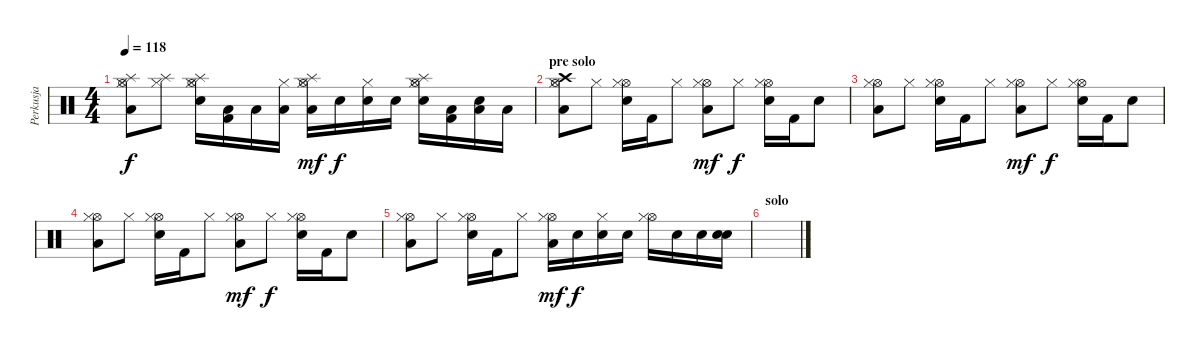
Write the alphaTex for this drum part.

\track ("Perkusja" "Perkusja") {instrument percussion}
\staff {score}
\articulation defaults
\ts (4 4)
\tempo 118
\clef neutral
\ks c
("Splash (hit)" "Low Tom (hit)" "Hi-Hat (open)" "Hi-Hat (closed)").8{dy f} ("Splash (hit)" "Hi-Hat (closed)").8 ("Splash (hit)" "Electric Snare (hit)" "Hi-Hat (open)" "Hi-Hat (closed)").16 ("Low Tom (hit)" "Kick (hit) 2").16 "Low Tom (hit)".16 ("Low Tom (hit)" "Hi-Hat (closed)").16 ("Splash (hit)" "Low Tom (hit)" "Hi-Hat (open)" "Hi-Hat (closed)").16{dy mf} "Electric Snare (hit)".16{dy f} ("Electric Snare (hit)" "Hi-Hat (closed)").16 "Electric Snare (hit)".16 ("Splash (hit)" "Electric Snare (hit)" "Hi-Hat (open)" "Hi-Hat (closed)").16 ("Low Tom (hit)" "Kick (hit) 2").16 ("Low Tom (hit)" "Snare (hit)").16 "Low Tom (hit)".16 |
\section ("" "pre solo")
("Crash high (hit)" "Low Tom (hit)" "Hi-Hat (open)" "Hi-Hat (closed)").8 "Hi-Hat (closed)".8 ("Electric Snare (hit)" "Hi-Hat (open)" "Hi-Hat (closed)").16 "Kick (hit) 2".16 "Hi-Hat (closed)".8 ("Low Tom (hit)" "Hi-Hat (open)" "Hi-Hat (closed)").8{dy mf} "Hi-Hat (closed)".8{dy f} ("Electric Snare (hit)" "Hi-Hat (open)" "Hi-Hat (closed)").16 "Kick (hit) 2".16 "Snare (hit)".8 |
("Low Tom (hit)" "Hi-Hat (open)" "Hi-Hat (closed)").8 "Hi-Hat (closed)".8 ("Electric Snare (hit)" "Hi-Hat (open)" "Hi-Hat (closed)").16 "Kick (hit) 2".16 "Hi-Hat (closed)".8 ("Low Tom (hit)" "Hi-Hat (open)" "Hi-Hat (closed)").8{dy mf} "Hi-Hat (closed)".8{dy f} ("Electric Snare (hit)" "Hi-Hat (open)" "Hi-Hat (closed)").16 "Kick (hit) 2".16 "Snare (hit)".8 |
("Low Tom (hit)" "Hi-Hat (open)" "Hi-Hat (closed)").8 "Hi-Hat (closed)".8 ("Electric Snare (hit)" "Hi-Hat (open)" "Hi-Hat (closed)").16 "Kick (hit) 2".16 "Hi-Hat (closed)".8 ("Low Tom (hit)" "Hi-Hat (open)" "Hi-Hat (closed)").8{dy mf} "Hi-Hat (closed)".8{dy f} ("Electric Snare (hit)" "Hi-Hat (open)" "Hi-Hat (closed)").16 "Kick (hit) 2".16 "Snare (hit)".8 |
("Low Tom (hit)" "Hi-Hat (open)" "Hi-Hat (closed)").8 "Hi-Hat (closed)".8 ("Electric Snare (hit)" "Hi-Hat (open)" "Hi-Hat (closed)").16 "Kick (hit) 2".16 "Hi-Hat (closed)".8 ("Low Tom (hit)" "Hi-Hat (open)" "Hi-Hat (closed)").16{dy mf} "Electric Snare (hit)".16{dy f} ("Electric Snare (hit)" "Hi-Hat (closed)").16 "Electric Snare (hit)".16 ("Hi-Hat (open)" "Hi-Hat (closed)").16 "Electric Snare (hit)".16 "Electric Snare (hit)".16 ("Electric Snare (hit)" "Snare (hit)").16 |
\section ("" "solo")
